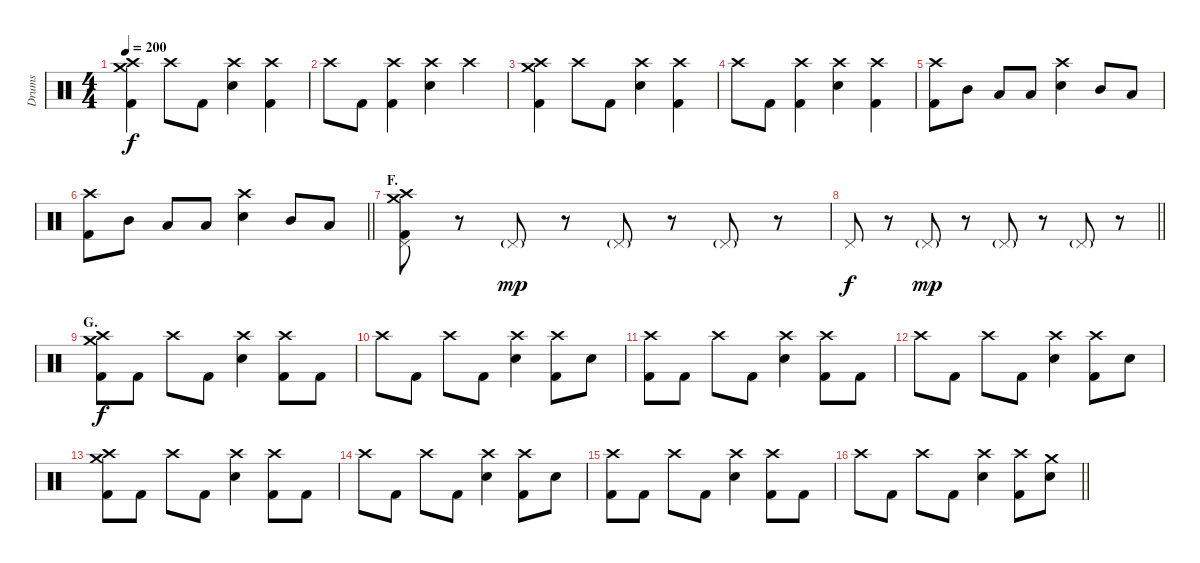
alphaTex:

\track ("Drums" "Drums") {instrument percussion}
\staff {score}
\articulation defaults
\ts (4 4)
\tempo 200
\clef neutral
\ks c
("Crash medium (hit)" "Crash high (hit)" "Kick (hit) 2").4{dy f} "Crash high (hit)".8 "Kick (hit) 2".8 ("Crash high (hit)" "Electric Snare (hit)").4 ("Crash high (hit)" "Kick (hit) 2").4 |
"Crash high (hit)".8 "Kick (hit) 2".8 ("Crash high (hit)" "Kick (hit) 2").4 ("Crash high (hit)" "Electric Snare (hit)").4 "Crash high (hit)".4 |
("Crash medium (hit)" "Crash high (hit)" "Kick (hit) 2").4 "Crash high (hit)".8 "Kick (hit) 2".8 ("Crash high (hit)" "Electric Snare (hit)").4 ("Crash high (hit)" "Kick (hit) 2").4 |
"Crash high (hit)".8 "Kick (hit) 2".8 ("Crash high (hit)" "Kick (hit) 2").4 ("Crash high (hit)" "Electric Snare (hit)").4 ("Crash high (hit)" "Kick (hit) 2").4 |
("Crash high (hit)" "Kick (hit) 2").8 "Mid Tom (hit)".8 "Low Tom (hit)".8 "Low Floor Tom (hit)".8 ("Crash high (hit)" "Electric Snare (hit)").4 "Mid Tom (hit)".8 "Low Tom (hit)".8 |
\barLineRight lightlight
("Crash high (hit)" "Kick (hit) 2").8 "Mid Tom (hit)".8 "Low Tom (hit)".8 "Low Floor Tom (hit)".8 ("Crash high (hit)" "Electric Snare (hit)").4 "Mid Tom (hit)".8 "Low Tom (hit)".8 |
\section ("" "F.")
("Crash medium (hit)" "Crash high (hit)" "Pedal Hi-Hat (hit)" "Kick (hit) 2").8 r.8 "Pedal Hi-Hat (hit)"{g}.8{dy mp} r.8 "Pedal Hi-Hat (hit)"{g}.8 r.8 "Pedal Hi-Hat (hit)"{g}.8 r.8 |
\barLineRight lightlight "Pedal Hi-Hat (hit)".8{dy f}
r.8 "Pedal Hi-Hat (hit)"{g}.8{dy mp} r.8 "Pedal Hi-Hat (hit)"{g}.8 r.8 "Pedal Hi-Hat (hit)"{g}.8 r.8 |
\section ("" "G.")
("Crash medium (hit)" "Crash high (hit)" "Kick (hit) 2").8{dy f} "Kick (hit) 2".8 "Crash high (hit)".8 "Kick (hit) 2".8 ("Crash high (hit)" "Electric Snare (hit)").4 ("Crash high (hit)" "Kick (hit) 2").8 "Kick (hit) 2".8 |
"Crash high (hit)".8 "Kick (hit) 2".8 "Crash high (hit)".8 "Kick (hit) 2".8 ("Crash high (hit)" "Electric Snare (hit)").4 ("Crash high (hit)" "Kick (hit) 2").8 "Electric Snare (hit)".8 |
("Crash high (hit)" "Kick (hit) 2").8 "Kick (hit) 2".8 "Crash high (hit)".8 "Kick (hit) 2".8 ("Crash high (hit)" "Electric Snare (hit)").4 ("Crash high (hit)" "Kick (hit) 2").8 "Kick (hit) 2".8 |
"Crash high (hit)".8 "Kick (hit) 2".8 "Crash high (hit)".8 "Kick (hit) 2".8 ("Crash high (hit)" "Electric Snare (hit)").4 ("Crash high (hit)" "Kick (hit) 2").8 "Electric Snare (hit)".8 |
("Crash medium (hit)" "Crash high (hit)" "Kick (hit) 2").8 "Kick (hit) 2".8 "Crash high (hit)".8 "Kick (hit) 2".8 ("Crash high (hit)" "Electric Snare (hit)").4 ("Crash high (hit)" "Kick (hit) 2").8 "Kick (hit) 2".8 |
"Crash high (hit)".8 "Kick (hit) 2".8 "Crash high (hit)".8 "Kick (hit) 2".8 ("Crash high (hit)" "Electric Snare (hit)").4 ("Crash high (hit)" "Kick (hit) 2").8 "Electric Snare (hit)".8 |
("Crash high (hit)" "Kick (hit) 2").8 "Kick (hit) 2".8 "Crash high (hit)".8 "Kick (hit) 2".8 ("Crash high (hit)" "Electric Snare (hit)").4 ("Crash high (hit)" "Kick (hit) 2").8 "Kick (hit) 2".8 |
\barLineRight lightlight "Crash high (hit)".8 "Kick (hit) 2".8 "Crash high (hit)".8 "Kick (hit) 2".8
("Crash high (hit)" "Electric Snare (hit)").4 ("Crash high (hit)" "Kick (hit) 2").8 ("Crash medium (hit)" "Electric Snare (hit)").8
